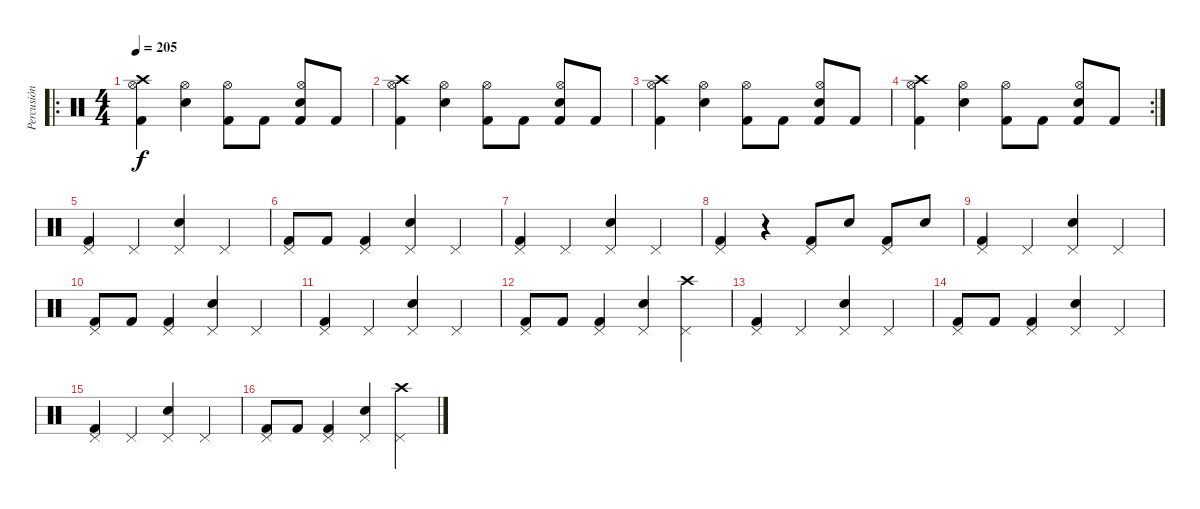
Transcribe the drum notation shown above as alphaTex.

\track ("Percusión" "Percusión") {instrument percussion}
\staff {score}
\articulation defaults
\ro
\ts (4 4)
\tempo 205
\clef neutral
\ks c
("Crash high (hit)" "Kick (hit) 2" "Hi-Hat (open)").4{dy f} ("Snare (hit) 2" "Hi-Hat (open)").4 ("Kick (hit) 2" "Hi-Hat (open)").8 "Kick (hit) 2".8 ("Snare (hit) 2" "Kick (hit) 2" "Hi-Hat (open)").8 "Kick (hit) 2".8 |
("Crash high (hit)" "Kick (hit) 2" "Hi-Hat (open)").4 ("Snare (hit) 2" "Hi-Hat (open)").4 ("Kick (hit) 2" "Hi-Hat (open)").8 "Kick (hit) 2".8 ("Snare (hit) 2" "Kick (hit) 2" "Hi-Hat (open)").8 "Kick (hit) 2".8 |
("Crash high (hit)" "Kick (hit) 2" "Hi-Hat (open)").4 ("Snare (hit) 2" "Hi-Hat (open)").4 ("Kick (hit) 2" "Hi-Hat (open)").8 "Kick (hit) 2".8 ("Snare (hit) 2" "Kick (hit) 2" "Hi-Hat (open)").8 "Kick (hit) 2".8 |
\rc 2
("Crash high (hit)" "Kick (hit) 2" "Hi-Hat (open)").4 ("Snare (hit) 2" "Hi-Hat (open)").4 ("Kick (hit) 2" "Hi-Hat (open)").8 "Kick (hit) 2".8 ("Snare (hit) 2" "Kick (hit) 2" "Hi-Hat (open)").8 "Kick (hit) 2".8 |
("Kick (hit) 2" "Pedal Hi-Hat (hit)").4 "Pedal Hi-Hat (hit)".4 ("Snare (hit) 2" "Pedal Hi-Hat (hit)").4 "Pedal Hi-Hat (hit)".4 |
("Kick (hit) 2" "Pedal Hi-Hat (hit)").8 "Kick (hit) 2".8 ("Kick (hit) 2" "Pedal Hi-Hat (hit)").4 ("Snare (hit) 2" "Pedal Hi-Hat (hit)").4 "Pedal Hi-Hat (hit)".4 |
("Kick (hit) 2" "Pedal Hi-Hat (hit)").4 "Pedal Hi-Hat (hit)".4 ("Snare (hit) 2" "Pedal Hi-Hat (hit)").4 "Pedal Hi-Hat (hit)".4 |
("Kick (hit) 2" "Pedal Hi-Hat (hit)").4 r.4 ("Kick (hit) 2" "Pedal Hi-Hat (hit)").8 "Snare (hit) 2".8 ("Kick (hit) 2" "Pedal Hi-Hat (hit)").8 "Snare (hit) 2".8 |
("Kick (hit) 2" "Pedal Hi-Hat (hit)").4 "Pedal Hi-Hat (hit)".4 ("Snare (hit) 2" "Pedal Hi-Hat (hit)").4 "Pedal Hi-Hat (hit)".4 |
("Kick (hit) 2" "Pedal Hi-Hat (hit)").8 "Kick (hit) 2".8 ("Kick (hit) 2" "Pedal Hi-Hat (hit)").4 ("Snare (hit) 2" "Pedal Hi-Hat (hit)").4 "Pedal Hi-Hat (hit)".4 |
("Kick (hit) 2" "Pedal Hi-Hat (hit)").4 "Pedal Hi-Hat (hit)".4 ("Snare (hit) 2" "Pedal Hi-Hat (hit)").4 "Pedal Hi-Hat (hit)".4 |
("Kick (hit) 2" "Pedal Hi-Hat (hit)").8 "Kick (hit) 2".8 ("Kick (hit) 2" "Pedal Hi-Hat (hit)").4 ("Snare (hit) 2" "Pedal Hi-Hat (hit)").4 ("Crash high (hit)" "Pedal Hi-Hat (hit)").4 |
("Kick (hit) 2" "Pedal Hi-Hat (hit)").4 "Pedal Hi-Hat (hit)".4 ("Snare (hit) 2" "Pedal Hi-Hat (hit)").4 "Pedal Hi-Hat (hit)".4 |
("Kick (hit) 2" "Pedal Hi-Hat (hit)").8 "Kick (hit) 2".8 ("Kick (hit) 2" "Pedal Hi-Hat (hit)").4 ("Snare (hit) 2" "Pedal Hi-Hat (hit)").4 "Pedal Hi-Hat (hit)".4 |
("Kick (hit) 2" "Pedal Hi-Hat (hit)").4 "Pedal Hi-Hat (hit)".4 ("Snare (hit) 2" "Pedal Hi-Hat (hit)").4 "Pedal Hi-Hat (hit)".4 |
("Kick (hit) 2" "Pedal Hi-Hat (hit)").8 "Kick (hit) 2".8 ("Kick (hit) 2" "Pedal Hi-Hat (hit)").4 ("Snare (hit) 2" "Pedal Hi-Hat (hit)").4 ("Crash high (hit)" "Pedal Hi-Hat (hit)").4
